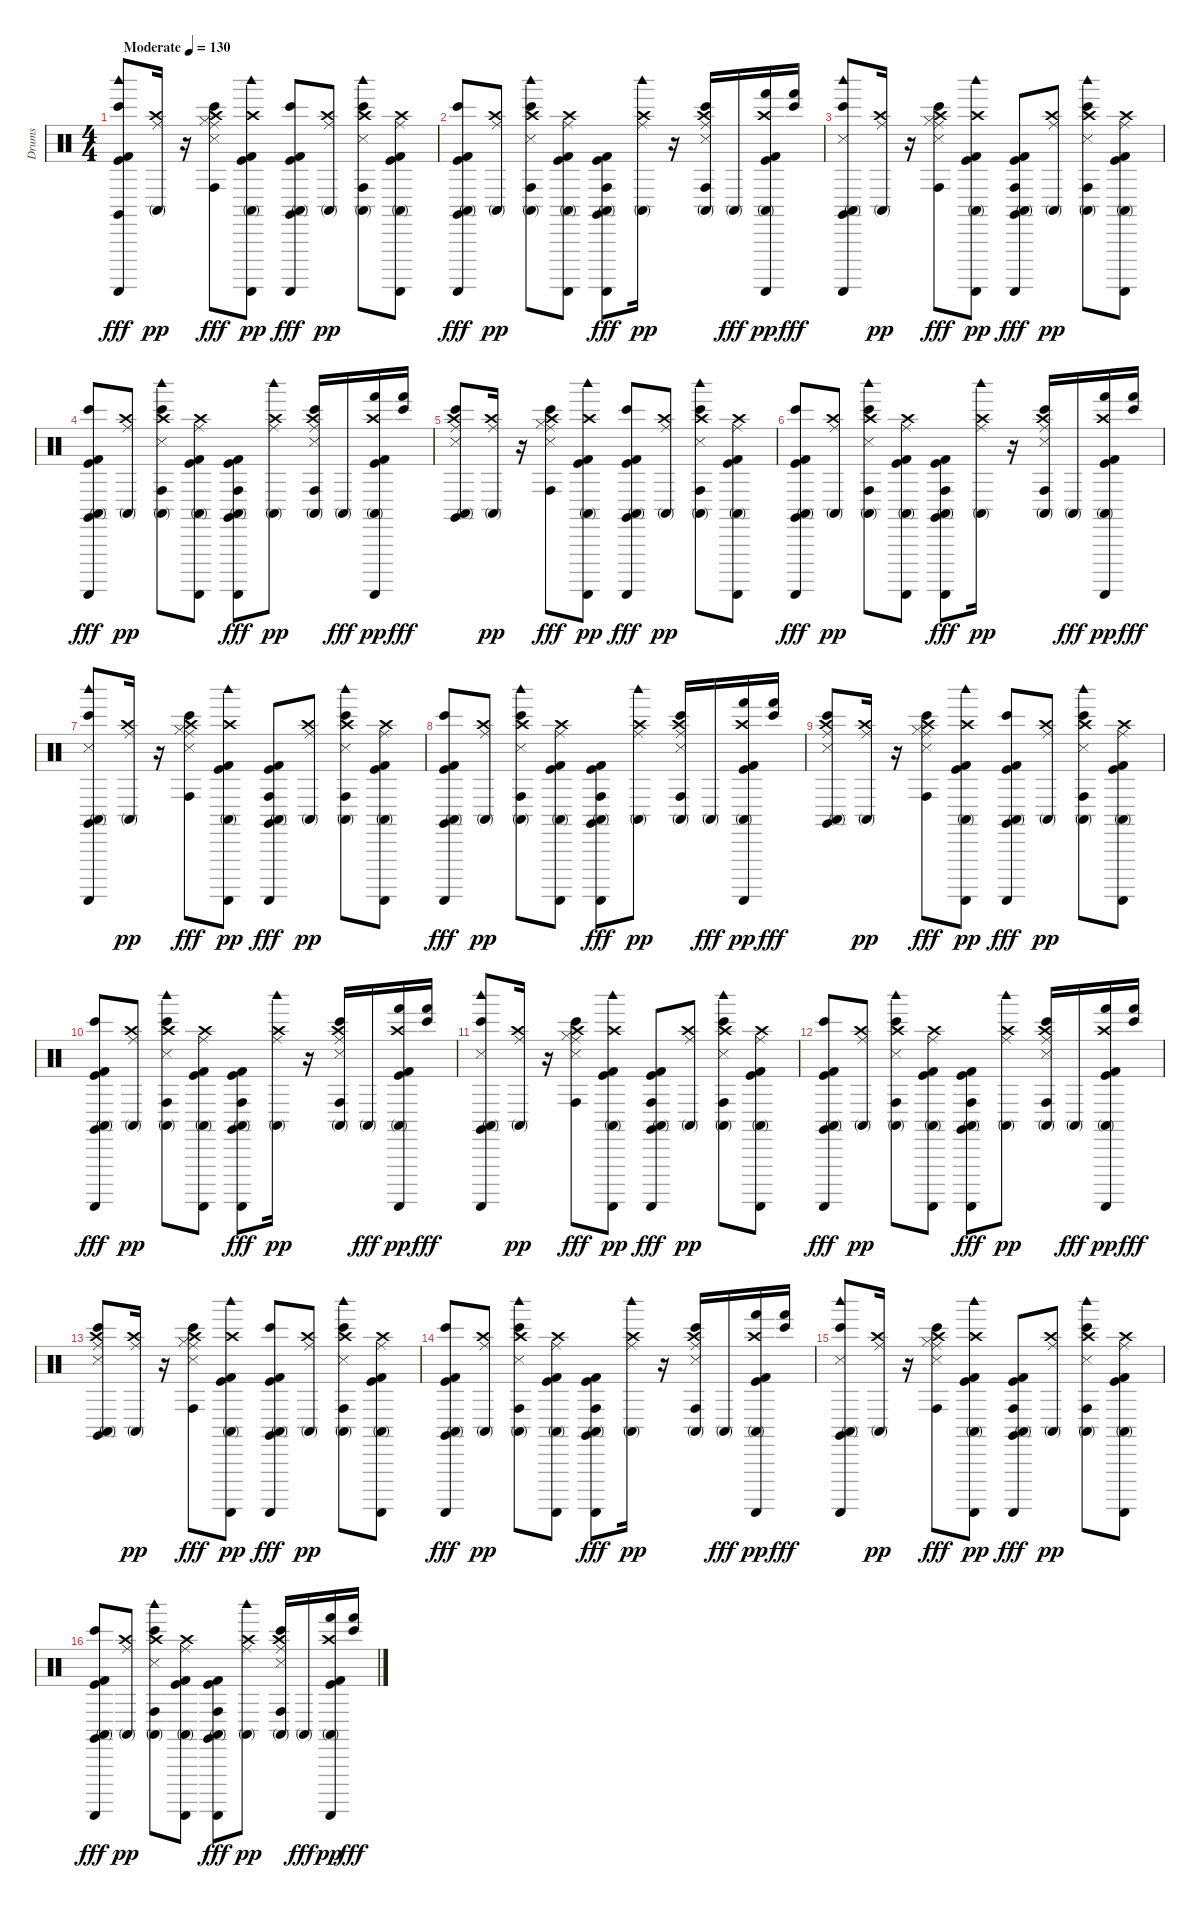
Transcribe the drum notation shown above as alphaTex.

\track ("Drums" "Drums") {instrument percussion}
\staff {score}
\articulation defaults
\ts (4 4)
\tempo (130 "Moderate")
\clef neutral
\ks c
("Kick (hit)" "Kick (hit) 2" "Guiro (scrap-return)" "Woodblock high (hit)" "Claves (hit)" "Bongo High (hit)").8{dy fff} ("Conga high (mute)" "Crash high (hit)" "Ride (middle)").16{dy pp} r.16 ("Bongo High (hit)" "Conga high (hit)" "Snare (side stick) 3" "Crash high (hit)" "Ride (middle)" "Hi-Hat (closed)").8{dy fff} ("Kick (hit) 2" "Kick (hit)" "Guiro (scrap-return)" "Woodblock high (hit)" "Conga high (mute)" "Crash high (hit)").8{dy pp} ("Kick (hit) 2" "Kick (hit)" "Guiro (scrap-return)" "Claves (hit)" "Bongo High (hit)" "Conga high (mute)").8{dy fff} ("Conga high (mute)" "Crash high (hit)" "Ride (middle)").8{dy pp} ("Woodblock high (hit)" "Bongo High (hit)" "Conga high (mute)" "Conga high (hit)" "Snare (side stick) 3" "Crash high (hit)").8 ("Kick (hit) 2" "Kick (hit)" "Guiro (scrap-return)" "Conga high (mute)" "Crash high (hit)" "Ride (middle)").8 |
("Kick (hit) 2" "Kick (hit)" "Guiro (scrap-return)" "Claves (hit)" "Conga high (mute)" "Bongo High (hit)").8{dy fff} ("Conga high (mute)" "Crash high (hit)" "Ride (middle)").8{dy pp} ("Woodblock high (hit)" "Conga high (mute)" "Conga high (hit)" "Bongo High (hit)" "Snare (side stick) 3" "Crash high (hit)").8 ("Kick (hit) 2" "Kick (hit)" "Guiro (scrap-return)" "Conga high (mute)" "Crash high (hit)" "Ride (middle)").8 ("Kick (hit)" "Kick (hit) 2" "Guiro (scrap-return)" "Claves (hit)" "Conga high (mute)" "Conga high (hit)").8{dy fff} ("Woodblock high (hit)" "Conga high (mute)" "Crash high (hit)" "Ride (middle)").16{dy pp} r.16 ("Conga high (mute)" "Conga high (hit)" "Bongo High (hit)" "Snare (side stick) 3" "Crash high (hit)" "Ride (middle)").16 "Conga high (mute)".16{dy fff} ("Kick (hit) 2" "Kick (hit)" "Guiro (scrap-return)" "Hand (hit)" "Conga high (mute)" "Crash high (hit)").16{dy pp} ("Bongo High (hit)" "Hand (hit)").16{dy fff} |
("Guiro (scrap-return)" "Woodblock high (hit)" "Claves (hit)" "Conga high (mute)" "Snare (side stick) 3" "Bongo High (hit)").8 ("Conga high (mute)" "Crash high (hit)" "Ride (middle)").16{dy pp} r.16 ("Conga high (hit)" "Bongo High (hit)" "Snare (side stick) 3" "Crash high (hit)" "Ride (middle)" "Hi-Hat (closed)").8{dy fff} ("Guiro (scrap-return)" "Woodblock high (hit)" "Conga high (mute)" "Kick (hit) 2" "Kick (hit)" "Crash high (hit)").8{dy pp} ("Guiro (scrap-return)" "Claves (hit)" "Conga high (mute)" "Conga high (hit)" "Kick (hit) 2" "Kick (hit)").8{dy fff} ("Conga high (mute)" "Crash high (hit)" "Ride (middle)").8{dy pp} ("Woodblock high (hit)" "Conga high (mute)" "Conga high (hit)" "Bongo High (hit)" "Snare (side stick) 3" "Crash high (hit)").8 ("Guiro (scrap-return)" "Conga high (mute)" "Kick (hit) 2" "Kick (hit)" "Crash high (hit)" "Ride (middle)").8 |
("Guiro (scrap-return)" "Claves (hit)" "Conga high (mute)" "Kick (hit) 2" "Kick (hit)" "Bongo High (hit)").8{dy fff} ("Conga high (mute)" "Crash high (hit)" "Ride (middle)").8{dy pp} ("Woodblock high (hit)" "Conga high (mute)" "Conga high (hit)" "Bongo High (hit)" "Snare (side stick) 3" "Crash high (hit)").8 ("Guiro (scrap-return)" "Conga high (mute)" "Kick (hit) 2" "Kick (hit)" "Crash high (hit)" "Ride (middle)").8 ("Guiro (scrap-return)" "Claves (hit)" "Conga high (mute)" "Conga high (hit)" "Kick (hit)" "Kick (hit) 2").8{dy fff} ("Woodblock high (hit)" "Conga high (mute)" "Crash high (hit)" "Ride (middle)").8{dy pp} ("Conga high (mute)" "Conga high (hit)" "Bongo High (hit)" "Snare (side stick) 3" "Crash high (hit)" "Ride (middle)").16 "Conga high (mute)".16{dy fff} ("Guiro (scrap-return)" "Hand (hit)" "Conga high (mute)" "Kick (hit) 2" "Kick (hit)" "Crash high (hit)").16{dy pp} ("Bongo High (hit)" "Hand (hit)").16{dy fff} |
("Ride (middle)" "Crash high (hit)" "Snare (side stick) 3" "Conga high (mute)" "Bongo High (hit)" "Claves (hit)").8 ("Conga high (mute)" "Crash high (hit)" "Ride (middle)").16{dy pp} r.16 ("Bongo High (hit)" "Conga high (hit)" "Snare (side stick) 3" "Crash high (hit)" "Ride (middle)" "Hi-Hat (closed)").8{dy fff} ("Kick (hit) 2" "Kick (hit)" "Guiro (scrap-return)" "Woodblock high (hit)" "Conga high (mute)" "Crash high (hit)").8{dy pp} ("Kick (hit) 2" "Kick (hit)" "Guiro (scrap-return)" "Claves (hit)" "Bongo High (hit)" "Conga high (mute)").8{dy fff} ("Conga high (mute)" "Crash high (hit)" "Ride (middle)").8{dy pp} ("Woodblock high (hit)" "Bongo High (hit)" "Conga high (mute)" "Conga high (hit)" "Snare (side stick) 3" "Crash high (hit)").8 ("Kick (hit) 2" "Kick (hit)" "Guiro (scrap-return)" "Conga high (mute)" "Crash high (hit)" "Ride (middle)").8 |
("Kick (hit) 2" "Kick (hit)" "Guiro (scrap-return)" "Claves (hit)" "Conga high (mute)" "Bongo High (hit)").8{dy fff} ("Conga high (mute)" "Crash high (hit)" "Ride (middle)").8{dy pp} ("Woodblock high (hit)" "Conga high (mute)" "Conga high (hit)" "Bongo High (hit)" "Snare (side stick) 3" "Crash high (hit)").8 ("Kick (hit) 2" "Kick (hit)" "Guiro (scrap-return)" "Conga high (mute)" "Crash high (hit)" "Ride (middle)").8 ("Kick (hit)" "Kick (hit) 2" "Guiro (scrap-return)" "Claves (hit)" "Conga high (mute)" "Conga high (hit)").8{dy fff} ("Woodblock high (hit)" "Conga high (mute)" "Crash high (hit)" "Ride (middle)").16{dy pp} r.16 ("Conga high (mute)" "Conga high (hit)" "Bongo High (hit)" "Snare (side stick) 3" "Crash high (hit)" "Ride (middle)").16 "Conga high (mute)".16{dy fff} ("Kick (hit) 2" "Kick (hit)" "Guiro (scrap-return)" "Hand (hit)" "Conga high (mute)" "Crash high (hit)").16{dy pp} ("Bongo High (hit)" "Hand (hit)").16{dy fff} |
("Guiro (scrap-return)" "Woodblock high (hit)" "Claves (hit)" "Conga high (mute)" "Snare (side stick) 3" "Bongo High (hit)").8 ("Conga high (mute)" "Crash high (hit)" "Ride (middle)").16{dy pp} r.16 ("Conga high (hit)" "Bongo High (hit)" "Snare (side stick) 3" "Crash high (hit)" "Ride (middle)" "Hi-Hat (closed)").8{dy fff} ("Guiro (scrap-return)" "Woodblock high (hit)" "Conga high (mute)" "Kick (hit) 2" "Kick (hit)" "Crash high (hit)").8{dy pp} ("Guiro (scrap-return)" "Claves (hit)" "Conga high (mute)" "Conga high (hit)" "Kick (hit) 2" "Kick (hit)").8{dy fff} ("Conga high (mute)" "Crash high (hit)" "Ride (middle)").8{dy pp} ("Woodblock high (hit)" "Conga high (mute)" "Conga high (hit)" "Bongo High (hit)" "Snare (side stick) 3" "Crash high (hit)").8 ("Guiro (scrap-return)" "Conga high (mute)" "Kick (hit) 2" "Kick (hit)" "Crash high (hit)" "Ride (middle)").8 |
("Guiro (scrap-return)" "Claves (hit)" "Conga high (mute)" "Kick (hit) 2" "Kick (hit)" "Bongo High (hit)").8{dy fff} ("Conga high (mute)" "Crash high (hit)" "Ride (middle)").8{dy pp} ("Woodblock high (hit)" "Conga high (mute)" "Conga high (hit)" "Bongo High (hit)" "Snare (side stick) 3" "Crash high (hit)").8 ("Guiro (scrap-return)" "Conga high (mute)" "Kick (hit) 2" "Kick (hit)" "Crash high (hit)" "Ride (middle)").8 ("Guiro (scrap-return)" "Claves (hit)" "Conga high (mute)" "Conga high (hit)" "Kick (hit)" "Kick (hit) 2").8{dy fff} ("Woodblock high (hit)" "Conga high (mute)" "Crash high (hit)" "Ride (middle)").8{dy pp} ("Conga high (mute)" "Conga high (hit)" "Bongo High (hit)" "Snare (side stick) 3" "Crash high (hit)" "Ride (middle)").16 "Conga high (mute)".16{dy fff} ("Guiro (scrap-return)" "Hand (hit)" "Conga high (mute)" "Kick (hit) 2" "Kick (hit)" "Crash high (hit)").16{dy pp} ("Bongo High (hit)" "Hand (hit)").16{dy fff} |
("Ride (middle)" "Crash high (hit)" "Snare (side stick) 3" "Conga high (mute)" "Bongo High (hit)" "Claves (hit)").8 ("Conga high (mute)" "Crash high (hit)" "Ride (middle)").16{dy pp} r.16 ("Bongo High (hit)" "Conga high (hit)" "Snare (side stick) 3" "Crash high (hit)" "Ride (middle)" "Hi-Hat (closed)").8{dy fff} ("Kick (hit) 2" "Kick (hit)" "Guiro (scrap-return)" "Woodblock high (hit)" "Conga high (mute)" "Crash high (hit)").8{dy pp} ("Kick (hit) 2" "Kick (hit)" "Guiro (scrap-return)" "Claves (hit)" "Bongo High (hit)" "Conga high (mute)").8{dy fff} ("Conga high (mute)" "Crash high (hit)" "Ride (middle)").8{dy pp} ("Woodblock high (hit)" "Bongo High (hit)" "Conga high (mute)" "Conga high (hit)" "Snare (side stick) 3" "Crash high (hit)").8 ("Kick (hit) 2" "Kick (hit)" "Guiro (scrap-return)" "Conga high (mute)" "Crash high (hit)" "Ride (middle)").8 |
("Kick (hit) 2" "Kick (hit)" "Guiro (scrap-return)" "Claves (hit)" "Conga high (mute)" "Bongo High (hit)").8{dy fff} ("Conga high (mute)" "Crash high (hit)" "Ride (middle)").8{dy pp} ("Woodblock high (hit)" "Conga high (mute)" "Conga high (hit)" "Bongo High (hit)" "Snare (side stick) 3" "Crash high (hit)").8 ("Kick (hit) 2" "Kick (hit)" "Guiro (scrap-return)" "Conga high (mute)" "Crash high (hit)" "Ride (middle)").8 ("Kick (hit)" "Kick (hit) 2" "Guiro (scrap-return)" "Claves (hit)" "Conga high (mute)" "Conga high (hit)").8{dy fff} ("Woodblock high (hit)" "Conga high (mute)" "Crash high (hit)" "Ride (middle)").16{dy pp} r.16 ("Conga high (mute)" "Conga high (hit)" "Bongo High (hit)" "Snare (side stick) 3" "Crash high (hit)" "Ride (middle)").16 "Conga high (mute)".16{dy fff} ("Kick (hit) 2" "Kick (hit)" "Guiro (scrap-return)" "Hand (hit)" "Conga high (mute)" "Crash high (hit)").16{dy pp} ("Bongo High (hit)" "Hand (hit)").16{dy fff} |
("Guiro (scrap-return)" "Woodblock high (hit)" "Claves (hit)" "Conga high (mute)" "Snare (side stick) 3" "Bongo High (hit)").8 ("Conga high (mute)" "Crash high (hit)" "Ride (middle)").16{dy pp} r.16 ("Conga high (hit)" "Bongo High (hit)" "Snare (side stick) 3" "Crash high (hit)" "Ride (middle)" "Hi-Hat (closed)").8{dy fff} ("Guiro (scrap-return)" "Woodblock high (hit)" "Conga high (mute)" "Kick (hit) 2" "Kick (hit)" "Crash high (hit)").8{dy pp} ("Guiro (scrap-return)" "Claves (hit)" "Conga high (mute)" "Conga high (hit)" "Kick (hit) 2" "Kick (hit)").8{dy fff} ("Conga high (mute)" "Crash high (hit)" "Ride (middle)").8{dy pp} ("Woodblock high (hit)" "Conga high (mute)" "Conga high (hit)" "Bongo High (hit)" "Snare (side stick) 3" "Crash high (hit)").8 ("Guiro (scrap-return)" "Conga high (mute)" "Kick (hit) 2" "Kick (hit)" "Crash high (hit)" "Ride (middle)").8 |
("Guiro (scrap-return)" "Claves (hit)" "Conga high (mute)" "Kick (hit) 2" "Kick (hit)" "Bongo High (hit)").8{dy fff} ("Conga high (mute)" "Crash high (hit)" "Ride (middle)").8{dy pp} ("Woodblock high (hit)" "Conga high (mute)" "Conga high (hit)" "Bongo High (hit)" "Snare (side stick) 3" "Crash high (hit)").8 ("Guiro (scrap-return)" "Conga high (mute)" "Kick (hit) 2" "Kick (hit)" "Crash high (hit)" "Ride (middle)").8 ("Guiro (scrap-return)" "Claves (hit)" "Conga high (mute)" "Conga high (hit)" "Kick (hit)" "Kick (hit) 2").8{dy fff} ("Woodblock high (hit)" "Conga high (mute)" "Crash high (hit)" "Ride (middle)").8{dy pp} ("Conga high (mute)" "Conga high (hit)" "Bongo High (hit)" "Snare (side stick) 3" "Crash high (hit)" "Ride (middle)").16 "Conga high (mute)".16{dy fff} ("Guiro (scrap-return)" "Hand (hit)" "Conga high (mute)" "Kick (hit) 2" "Kick (hit)" "Crash high (hit)").16{dy pp} ("Bongo High (hit)" "Hand (hit)").16{dy fff} |
("Ride (middle)" "Crash high (hit)" "Snare (side stick) 3" "Conga high (mute)" "Bongo High (hit)" "Claves (hit)").8 ("Conga high (mute)" "Crash high (hit)" "Ride (middle)").16{dy pp} r.16 ("Bongo High (hit)" "Conga high (hit)" "Snare (side stick) 3" "Crash high (hit)" "Ride (middle)" "Hi-Hat (closed)").8{dy fff} ("Kick (hit) 2" "Kick (hit)" "Guiro (scrap-return)" "Woodblock high (hit)" "Conga high (mute)" "Crash high (hit)").8{dy pp} ("Kick (hit) 2" "Kick (hit)" "Guiro (scrap-return)" "Claves (hit)" "Bongo High (hit)" "Conga high (mute)").8{dy fff} ("Conga high (mute)" "Crash high (hit)" "Ride (middle)").8{dy pp} ("Woodblock high (hit)" "Bongo High (hit)" "Conga high (mute)" "Conga high (hit)" "Snare (side stick) 3" "Crash high (hit)").8 ("Kick (hit) 2" "Kick (hit)" "Guiro (scrap-return)" "Conga high (mute)" "Crash high (hit)" "Ride (middle)").8 |
("Kick (hit) 2" "Kick (hit)" "Guiro (scrap-return)" "Claves (hit)" "Conga high (mute)" "Bongo High (hit)").8{dy fff} ("Conga high (mute)" "Crash high (hit)" "Ride (middle)").8{dy pp} ("Woodblock high (hit)" "Conga high (mute)" "Conga high (hit)" "Bongo High (hit)" "Snare (side stick) 3" "Crash high (hit)").8 ("Kick (hit) 2" "Kick (hit)" "Guiro (scrap-return)" "Conga high (mute)" "Crash high (hit)" "Ride (middle)").8 ("Kick (hit)" "Kick (hit) 2" "Guiro (scrap-return)" "Claves (hit)" "Conga high (mute)" "Conga high (hit)").8{dy fff} ("Woodblock high (hit)" "Conga high (mute)" "Crash high (hit)" "Ride (middle)").16{dy pp} r.16 ("Conga high (mute)" "Conga high (hit)" "Bongo High (hit)" "Snare (side stick) 3" "Crash high (hit)" "Ride (middle)").16 "Conga high (mute)".16{dy fff} ("Kick (hit) 2" "Kick (hit)" "Guiro (scrap-return)" "Hand (hit)" "Conga high (mute)" "Crash high (hit)").16{dy pp} ("Bongo High (hit)" "Hand (hit)").16{dy fff} |
("Guiro (scrap-return)" "Woodblock high (hit)" "Claves (hit)" "Conga high (mute)" "Snare (side stick) 3" "Bongo High (hit)").8 ("Conga high (mute)" "Crash high (hit)" "Ride (middle)").16{dy pp} r.16 ("Conga high (hit)" "Bongo High (hit)" "Snare (side stick) 3" "Crash high (hit)" "Ride (middle)" "Hi-Hat (closed)").8{dy fff} ("Guiro (scrap-return)" "Woodblock high (hit)" "Conga high (mute)" "Kick (hit) 2" "Kick (hit)" "Crash high (hit)").8{dy pp} ("Guiro (scrap-return)" "Claves (hit)" "Conga high (mute)" "Conga high (hit)" "Kick (hit) 2" "Kick (hit)").8{dy fff} ("Conga high (mute)" "Crash high (hit)" "Ride (middle)").8{dy pp} ("Woodblock high (hit)" "Conga high (mute)" "Conga high (hit)" "Bongo High (hit)" "Snare (side stick) 3" "Crash high (hit)").8 ("Guiro (scrap-return)" "Conga high (mute)" "Kick (hit) 2" "Kick (hit)" "Crash high (hit)" "Ride (middle)").8 |
("Guiro (scrap-return)" "Claves (hit)" "Conga high (mute)" "Kick (hit) 2" "Kick (hit)" "Bongo High (hit)").8{dy fff} ("Conga high (mute)" "Crash high (hit)" "Ride (middle)").8{dy pp} ("Woodblock high (hit)" "Conga high (mute)" "Conga high (hit)" "Bongo High (hit)" "Snare (side stick) 3" "Crash high (hit)").8 ("Guiro (scrap-return)" "Conga high (mute)" "Kick (hit) 2" "Kick (hit)" "Crash high (hit)" "Ride (middle)").8 ("Guiro (scrap-return)" "Claves (hit)" "Conga high (mute)" "Conga high (hit)" "Kick (hit)" "Kick (hit) 2").8{dy fff} ("Woodblock high (hit)" "Conga high (mute)" "Crash high (hit)" "Ride (middle)").8{dy pp} ("Conga high (mute)" "Conga high (hit)" "Bongo High (hit)" "Snare (side stick) 3" "Crash high (hit)" "Ride (middle)").16 "Conga high (mute)".16{dy fff} ("Guiro (scrap-return)" "Hand (hit)" "Conga high (mute)" "Kick (hit) 2" "Kick (hit)" "Crash high (hit)").16{dy pp} ("Bongo High (hit)" "Hand (hit)").16{dy fff}
